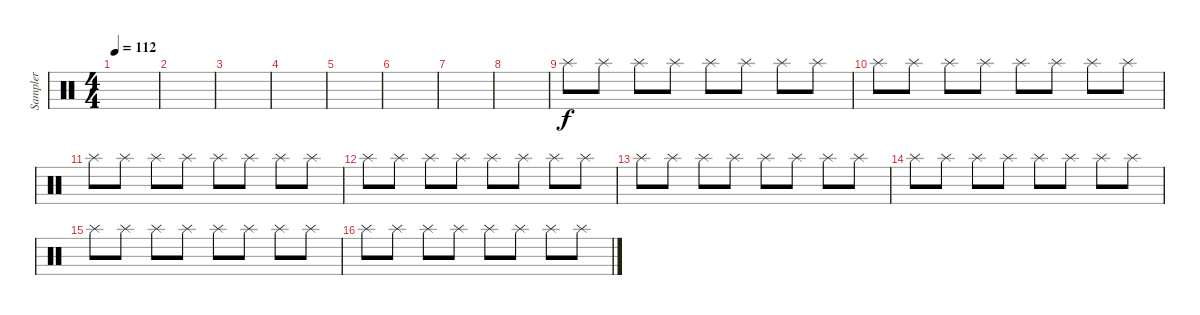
\track ("Sampler" "Sampler") {instrument percussion}
\staff {score}
\articulation defaults
\ts (4 4)
\tempo 112
\clef neutral
\ks c
|
|
|
|
|
|
|
|
"Splash (hit)".8 "Splash (hit)".8 "Splash (hit)".8 "Splash (hit)".8 "Splash (hit)".8 "Splash (hit)".8 "Splash (hit)".8 "Splash (hit)".8 |
"Splash (hit)".8 "Splash (hit)".8 "Splash (hit)".8 "Splash (hit)".8 "Splash (hit)".8 "Splash (hit)".8 "Splash (hit)".8 "Splash (hit)".8 |
"Splash (hit)".8 "Splash (hit)".8 "Splash (hit)".8 "Splash (hit)".8 "Splash (hit)".8 "Splash (hit)".8 "Splash (hit)".8 "Splash (hit)".8 |
"Splash (hit)".8 "Splash (hit)".8 "Splash (hit)".8 "Splash (hit)".8 "Splash (hit)".8 "Splash (hit)".8 "Splash (hit)".8 "Splash (hit)".8 |
"Splash (hit)".8 "Splash (hit)".8 "Splash (hit)".8 "Splash (hit)".8 "Splash (hit)".8 "Splash (hit)".8 "Splash (hit)".8 "Splash (hit)".8 |
"Splash (hit)".8 "Splash (hit)".8 "Splash (hit)".8 "Splash (hit)".8 "Splash (hit)".8 "Splash (hit)".8 "Splash (hit)".8 "Splash (hit)".8 |
"Splash (hit)".8 "Splash (hit)".8 "Splash (hit)".8 "Splash (hit)".8 "Splash (hit)".8 "Splash (hit)".8 "Splash (hit)".8 "Splash (hit)".8 |
"Splash (hit)".8 "Splash (hit)".8 "Splash (hit)".8 "Splash (hit)".8 "Splash (hit)".8 "Splash (hit)".8 "Splash (hit)".8 "Splash (hit)".8
